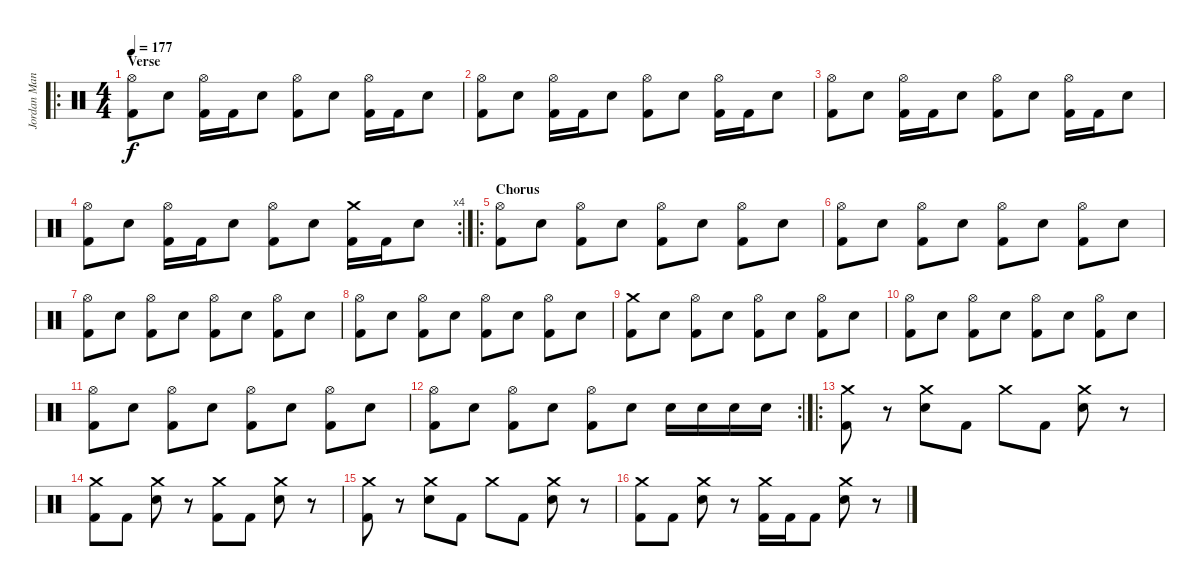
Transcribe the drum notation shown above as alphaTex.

\track ("Jordan Mancino" "Jordan Man") {instrument percussion}
\staff {score}
\articulation defaults
\ro
\ts (4 4)
\section ("" "Verse")
\tempo 177
\clef neutral
\ks c
("Hi-Hat (open)" "Kick (hit) 2").8{dy f} "Electric Snare (hit)".8 ("Hi-Hat (open)" "Kick (hit) 2").16 "Kick (hit) 2".16 "Electric Snare (hit)".8 ("Hi-Hat (open)" "Kick (hit) 2").8 "Electric Snare (hit)".8 ("Hi-Hat (open)" "Kick (hit) 2").16 "Kick (hit) 2".16 "Electric Snare (hit)".8 |
("Hi-Hat (open)" "Kick (hit) 2").8 "Electric Snare (hit)".8 ("Hi-Hat (open)" "Kick (hit) 2").16 "Kick (hit) 2".16 "Electric Snare (hit)".8 ("Hi-Hat (open)" "Kick (hit) 2").8 "Electric Snare (hit)".8 ("Hi-Hat (open)" "Kick (hit) 2").16 "Kick (hit) 2".16 "Electric Snare (hit)".8 |
("Hi-Hat (open)" "Kick (hit) 2").8 "Electric Snare (hit)".8 ("Hi-Hat (open)" "Kick (hit) 2").16 "Kick (hit) 2".16 "Electric Snare (hit)".8 ("Hi-Hat (open)" "Kick (hit) 2").8 "Electric Snare (hit)".8 ("Hi-Hat (open)" "Kick (hit) 2").16 "Kick (hit) 2".16 "Electric Snare (hit)".8 |
\rc 4
("Hi-Hat (open)" "Kick (hit) 2").8 "Electric Snare (hit)".8 ("Hi-Hat (open)" "Kick (hit) 2").16 "Kick (hit) 2".16 "Electric Snare (hit)".8 ("Hi-Hat (open)" "Kick (hit) 2").8 "Electric Snare (hit)".8 ("Crash medium (hit)" "Kick (hit) 2").16 "Kick (hit) 2".16 "Electric Snare (hit)".8 |
\ro
\section ("" "Chorus")
("Hi-Hat (open)" "Kick (hit) 2").8 "Electric Snare (hit)".8 ("Hi-Hat (open)" "Kick (hit) 2").8 "Electric Snare (hit)".8 ("Hi-Hat (open)" "Kick (hit) 2").8 "Electric Snare (hit)".8 ("Hi-Hat (open)" "Kick (hit) 2").8 "Electric Snare (hit)".8 |
("Hi-Hat (open)" "Kick (hit) 2").8 "Electric Snare (hit)".8 ("Hi-Hat (open)" "Kick (hit) 2").8 "Electric Snare (hit)".8 ("Hi-Hat (open)" "Kick (hit) 2").8 "Electric Snare (hit)".8 ("Hi-Hat (open)" "Kick (hit) 2").8 "Electric Snare (hit)".8 |
("Hi-Hat (open)" "Kick (hit) 2").8 "Electric Snare (hit)".8 ("Hi-Hat (open)" "Kick (hit) 2").8 "Electric Snare (hit)".8 ("Hi-Hat (open)" "Kick (hit) 2").8 "Electric Snare (hit)".8 ("Hi-Hat (open)" "Kick (hit) 2").8 "Electric Snare (hit)".8 |
("Hi-Hat (open)" "Kick (hit) 2").8 "Electric Snare (hit)".8 ("Hi-Hat (open)" "Kick (hit) 2").8 "Electric Snare (hit)".8 ("Hi-Hat (open)" "Kick (hit) 2").8 "Electric Snare (hit)".8 ("Hi-Hat (open)" "Kick (hit) 2").8 "Electric Snare (hit)".8 |
("Crash medium (hit)" "Kick (hit) 2").8 "Electric Snare (hit)".8 ("Hi-Hat (open)" "Kick (hit) 2").8 "Electric Snare (hit)".8 ("Hi-Hat (open)" "Kick (hit) 2").8 "Electric Snare (hit)".8 ("Hi-Hat (open)" "Kick (hit) 2").8 "Electric Snare (hit)".8 |
("Hi-Hat (open)" "Kick (hit) 2").8 "Electric Snare (hit)".8 ("Hi-Hat (open)" "Kick (hit) 2").8 "Electric Snare (hit)".8 ("Hi-Hat (open)" "Kick (hit) 2").8 "Electric Snare (hit)".8 ("Hi-Hat (open)" "Kick (hit) 2").8 "Electric Snare (hit)".8 |
("Hi-Hat (open)" "Kick (hit) 2").8 "Electric Snare (hit)".8 ("Hi-Hat (open)" "Kick (hit) 2").8 "Electric Snare (hit)".8 ("Hi-Hat (open)" "Kick (hit) 2").8 "Electric Snare (hit)".8 ("Hi-Hat (open)" "Kick (hit) 2").8 "Electric Snare (hit)".8 |
\rc 2
("Hi-Hat (open)" "Kick (hit) 2").8 "Electric Snare (hit)".8 ("Hi-Hat (open)" "Kick (hit) 2").8 "Electric Snare (hit)".8 ("Hi-Hat (open)" "Kick (hit) 2").8 "Electric Snare (hit)".8 "Electric Snare (hit)".16 "Electric Snare (hit)".16 "Electric Snare (hit)".16 "Electric Snare (hit)".16 |
\ro
("Crash medium (hit)" "Kick (hit) 2").8 r.8 ("Crash medium (hit)" "Electric Snare (hit)").8 "Kick (hit) 2".8 "Crash medium (hit)".8 "Kick (hit) 2".8 ("Crash medium (hit)" "Electric Snare (hit)").8 r.8 |
("Crash medium (hit)" "Kick (hit) 2").8 "Kick (hit) 2".8 ("Crash medium (hit)" "Electric Snare (hit)").8 r.8 ("Crash medium (hit)" "Kick (hit) 2").8 "Kick (hit) 2".8 ("Crash medium (hit)" "Electric Snare (hit)").8 r.8 |
("Crash medium (hit)" "Kick (hit) 2").8 r.8 ("Crash medium (hit)" "Electric Snare (hit)").8 "Kick (hit) 2".8 "Crash medium (hit)".8 "Kick (hit) 2".8 ("Crash medium (hit)" "Electric Snare (hit)").8 r.8 |
("Crash medium (hit)" "Kick (hit) 2").8 "Kick (hit) 2".8 ("Crash medium (hit)" "Electric Snare (hit)").8 r.8 ("Crash medium (hit)" "Kick (hit) 2").16 "Kick (hit) 2".16 "Kick (hit) 2".8 ("Crash medium (hit)" "Electric Snare (hit)").8 r.8
